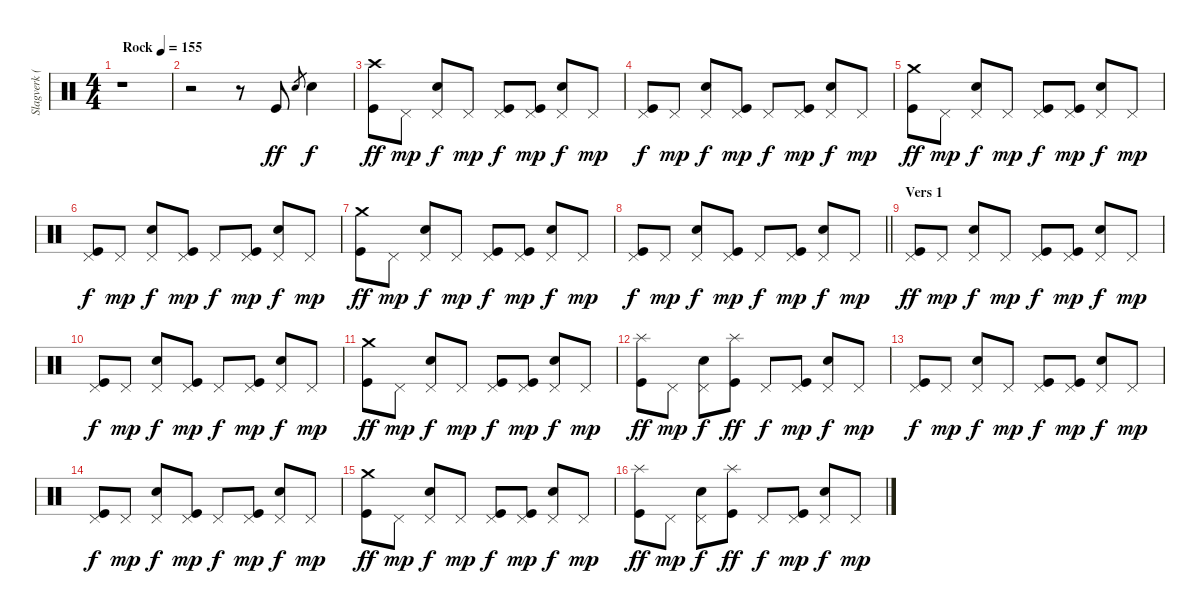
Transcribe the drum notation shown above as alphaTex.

\track ("Slagverk (Jan)" "Slagverk (") {instrument percussion}
\staff {score}
\articulation defaults
\ts (4 4)
\tempo (155 "Rock")
\clef neutral
\ks c
r.1{dy ff} |
r.2 r.8 "Kick (hit)".8 "Snare (hit) 2".8{gr} "Snare (hit) 2".4{dy f} |
("Kick (hit)" "Crash high (hit)").8{dy ff} "Pedal Hi-Hat (hit)".8{dy mp} ("Snare (hit) 2" "Pedal Hi-Hat (hit)").8{dy f} "Pedal Hi-Hat (hit)".8{dy mp} ("Kick (hit)" "Pedal Hi-Hat (hit)").8{dy f} ("Kick (hit)" "Pedal Hi-Hat (hit)").8{dy mp} ("Snare (hit) 2" "Pedal Hi-Hat (hit)").8{dy f} "Pedal Hi-Hat (hit)".8{dy mp} |
("Kick (hit)" "Pedal Hi-Hat (hit)").8{dy f} "Pedal Hi-Hat (hit)".8{dy mp} ("Snare (hit) 2" "Pedal Hi-Hat (hit)").8{dy f} ("Kick (hit)" "Pedal Hi-Hat (hit)").8{dy mp} "Pedal Hi-Hat (hit)".8{dy f} ("Kick (hit)" "Pedal Hi-Hat (hit)").8{dy mp} ("Snare (hit) 2" "Pedal Hi-Hat (hit)").8{dy f} "Pedal Hi-Hat (hit)".8{dy mp} |
("Kick (hit)" "Crash medium (hit)").8{dy ff} "Pedal Hi-Hat (hit)".8{dy mp} ("Snare (hit) 2" "Pedal Hi-Hat (hit)").8{dy f} "Pedal Hi-Hat (hit)".8{dy mp} ("Kick (hit)" "Pedal Hi-Hat (hit)").8{dy f} ("Kick (hit)" "Pedal Hi-Hat (hit)").8{dy mp} ("Snare (hit) 2" "Pedal Hi-Hat (hit)").8{dy f} "Pedal Hi-Hat (hit)".8{dy mp} |
("Kick (hit)" "Pedal Hi-Hat (hit)").8{dy f} "Pedal Hi-Hat (hit)".8{dy mp} ("Snare (hit) 2" "Pedal Hi-Hat (hit)").8{dy f} ("Kick (hit)" "Pedal Hi-Hat (hit)").8{dy mp} "Pedal Hi-Hat (hit)".8{dy f} ("Kick (hit)" "Pedal Hi-Hat (hit)").8{dy mp} ("Snare (hit) 2" "Pedal Hi-Hat (hit)").8{dy f} "Pedal Hi-Hat (hit)".8{dy mp} |
("Kick (hit)" "Crash medium (hit)").8{dy ff} "Pedal Hi-Hat (hit)".8{dy mp} ("Snare (hit) 2" "Pedal Hi-Hat (hit)").8{dy f} "Pedal Hi-Hat (hit)".8{dy mp} ("Kick (hit)" "Pedal Hi-Hat (hit)").8{dy f} ("Kick (hit)" "Pedal Hi-Hat (hit)").8{dy mp} ("Snare (hit) 2" "Pedal Hi-Hat (hit)").8{dy f} "Pedal Hi-Hat (hit)".8{dy mp} |
\barLineRight lightlight
("Kick (hit)" "Pedal Hi-Hat (hit)").8{dy f} "Pedal Hi-Hat (hit)".8{dy mp} ("Snare (hit) 2" "Pedal Hi-Hat (hit)").8{dy f} ("Kick (hit)" "Pedal Hi-Hat (hit)").8{dy mp} "Pedal Hi-Hat (hit)".8{dy f} ("Kick (hit)" "Pedal Hi-Hat (hit)").8{dy mp} ("Snare (hit) 2" "Pedal Hi-Hat (hit)").8{dy f} "Pedal Hi-Hat (hit)".8{dy mp} |
\section ("" "Vers 1")
("Kick (hit)" "Pedal Hi-Hat (hit)").8{dy ff} "Pedal Hi-Hat (hit)".8{dy mp} ("Snare (hit) 2" "Pedal Hi-Hat (hit)").8{dy f} "Pedal Hi-Hat (hit)".8{dy mp} ("Kick (hit)" "Pedal Hi-Hat (hit)").8{dy f} ("Kick (hit)" "Pedal Hi-Hat (hit)").8{dy mp} ("Snare (hit) 2" "Pedal Hi-Hat (hit)").8{dy f} "Pedal Hi-Hat (hit)".8{dy mp} |
("Kick (hit)" "Pedal Hi-Hat (hit)").8{dy f} "Pedal Hi-Hat (hit)".8{dy mp} ("Snare (hit) 2" "Pedal Hi-Hat (hit)").8{dy f} ("Kick (hit)" "Pedal Hi-Hat (hit)").8{dy mp} "Pedal Hi-Hat (hit)".8{dy f} ("Kick (hit)" "Pedal Hi-Hat (hit)").8{dy mp} ("Snare (hit) 2" "Pedal Hi-Hat (hit)").8{dy f} "Pedal Hi-Hat (hit)".8{dy mp} |
("Kick (hit)" "Crash medium (hit)").8{dy ff} "Pedal Hi-Hat (hit)".8{dy mp} ("Snare (hit) 2" "Pedal Hi-Hat (hit)").8{dy f} "Pedal Hi-Hat (hit)".8{dy mp} ("Kick (hit)" "Pedal Hi-Hat (hit)").8{dy f} ("Kick (hit)" "Pedal Hi-Hat (hit)").8{dy mp} ("Snare (hit) 2" "Pedal Hi-Hat (hit)").8{dy f} "Pedal Hi-Hat (hit)".8{dy mp} |
("Kick (hit)" "Splash (hit)").8{dy ff} "Pedal Hi-Hat (hit)".8{dy mp} ("Snare (hit) 2" "Pedal Hi-Hat (hit)").8{dy f} ("Kick (hit)" "Splash (hit)").8{dy ff} "Pedal Hi-Hat (hit)".8{dy f} ("Kick (hit)" "Pedal Hi-Hat (hit)").8{dy mp} ("Snare (hit) 2" "Pedal Hi-Hat (hit)").8{dy f} "Pedal Hi-Hat (hit)".8{dy mp} |
("Kick (hit)" "Pedal Hi-Hat (hit)").8{dy f} "Pedal Hi-Hat (hit)".8{dy mp} ("Snare (hit) 2" "Pedal Hi-Hat (hit)").8{dy f} "Pedal Hi-Hat (hit)".8{dy mp} ("Kick (hit)" "Pedal Hi-Hat (hit)").8{dy f} ("Kick (hit)" "Pedal Hi-Hat (hit)").8{dy mp} ("Snare (hit) 2" "Pedal Hi-Hat (hit)").8{dy f} "Pedal Hi-Hat (hit)".8{dy mp} |
("Kick (hit)" "Pedal Hi-Hat (hit)").8{dy f} "Pedal Hi-Hat (hit)".8{dy mp} ("Snare (hit) 2" "Pedal Hi-Hat (hit)").8{dy f} ("Kick (hit)" "Pedal Hi-Hat (hit)").8{dy mp} "Pedal Hi-Hat (hit)".8{dy f} ("Kick (hit)" "Pedal Hi-Hat (hit)").8{dy mp} ("Snare (hit) 2" "Pedal Hi-Hat (hit)").8{dy f} "Pedal Hi-Hat (hit)".8{dy mp} |
("Kick (hit)" "Crash medium (hit)").8{dy ff} "Pedal Hi-Hat (hit)".8{dy mp} ("Snare (hit) 2" "Pedal Hi-Hat (hit)").8{dy f} "Pedal Hi-Hat (hit)".8{dy mp} ("Kick (hit)" "Pedal Hi-Hat (hit)").8{dy f} ("Kick (hit)" "Pedal Hi-Hat (hit)").8{dy mp} ("Snare (hit) 2" "Pedal Hi-Hat (hit)").8{dy f} "Pedal Hi-Hat (hit)".8{dy mp} |
("Kick (hit)" "Splash (hit)").8{dy ff} "Pedal Hi-Hat (hit)".8{dy mp} ("Snare (hit) 2" "Pedal Hi-Hat (hit)").8{dy f} ("Kick (hit)" "Splash (hit)").8{dy ff} "Pedal Hi-Hat (hit)".8{dy f} ("Kick (hit)" "Pedal Hi-Hat (hit)").8{dy mp} ("Snare (hit) 2" "Pedal Hi-Hat (hit)").8{dy f} "Pedal Hi-Hat (hit)".8{dy mp}
